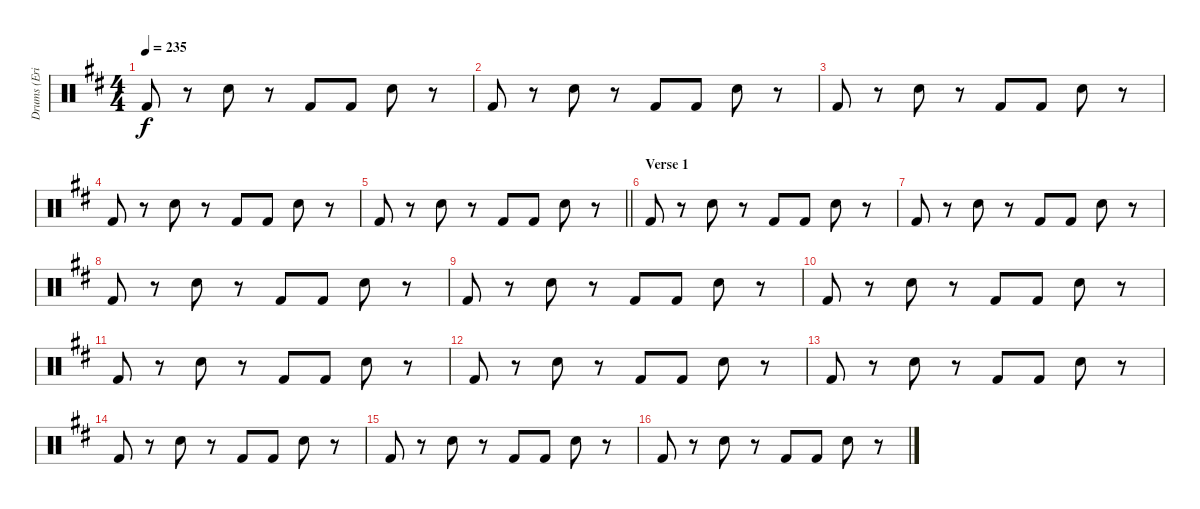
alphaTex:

\track ("Drums (Eric Carr)" "Drums (Eri") {instrument percussion}
\staff {score}
\articulation defaults
\ts (4 4)
\tempo 235
\clef neutral
\ks d "Kick (hit) 2".8{dy f}
r.8 "Snare (hit) 2".8 r.8 "Kick (hit) 2".8 "Kick (hit) 2".8 "Snare (hit) 2".8 r.8 |
"Kick (hit) 2".8 r.8 "Snare (hit) 2".8 r.8 "Kick (hit) 2".8 "Kick (hit) 2".8 "Snare (hit) 2".8 r.8 |
"Kick (hit) 2".8 r.8 "Snare (hit) 2".8 r.8 "Kick (hit) 2".8 "Kick (hit) 2".8 "Snare (hit) 2".8 r.8 |
"Kick (hit) 2".8 r.8 "Snare (hit) 2".8 r.8 "Kick (hit) 2".8 "Kick (hit) 2".8 "Snare (hit) 2".8 r.8 |
\barLineRight lightlight "Kick (hit) 2".8
r.8 "Snare (hit) 2".8 r.8 "Kick (hit) 2".8 "Kick (hit) 2".8 "Snare (hit) 2".8 r.8 |
\section ("" "Verse 1")
"Kick (hit) 2".8 r.8 "Snare (hit) 2".8 r.8 "Kick (hit) 2".8 "Kick (hit) 2".8 "Snare (hit) 2".8 r.8 |
"Kick (hit) 2".8 r.8 "Snare (hit) 2".8 r.8 "Kick (hit) 2".8 "Kick (hit) 2".8 "Snare (hit) 2".8 r.8 |
"Kick (hit) 2".8 r.8 "Snare (hit) 2".8 r.8 "Kick (hit) 2".8 "Kick (hit) 2".8 "Snare (hit) 2".8 r.8 |
"Kick (hit) 2".8 r.8 "Snare (hit) 2".8 r.8 "Kick (hit) 2".8 "Kick (hit) 2".8 "Snare (hit) 2".8 r.8 |
"Kick (hit) 2".8 r.8 "Snare (hit) 2".8 r.8 "Kick (hit) 2".8 "Kick (hit) 2".8 "Snare (hit) 2".8 r.8 |
"Kick (hit) 2".8 r.8 "Snare (hit) 2".8 r.8 "Kick (hit) 2".8 "Kick (hit) 2".8 "Snare (hit) 2".8 r.8 |
"Kick (hit) 2".8 r.8 "Snare (hit) 2".8 r.8 "Kick (hit) 2".8 "Kick (hit) 2".8 "Snare (hit) 2".8 r.8 |
"Kick (hit) 2".8 r.8 "Snare (hit) 2".8 r.8 "Kick (hit) 2".8 "Kick (hit) 2".8 "Snare (hit) 2".8 r.8 |
"Kick (hit) 2".8 r.8 "Snare (hit) 2".8 r.8 "Kick (hit) 2".8 "Kick (hit) 2".8 "Snare (hit) 2".8 r.8 |
"Kick (hit) 2".8 r.8 "Snare (hit) 2".8 r.8 "Kick (hit) 2".8 "Kick (hit) 2".8 "Snare (hit) 2".8 r.8 |
"Kick (hit) 2".8 r.8 "Snare (hit) 2".8 r.8 "Kick (hit) 2".8 "Kick (hit) 2".8 "Snare (hit) 2".8 r.8
